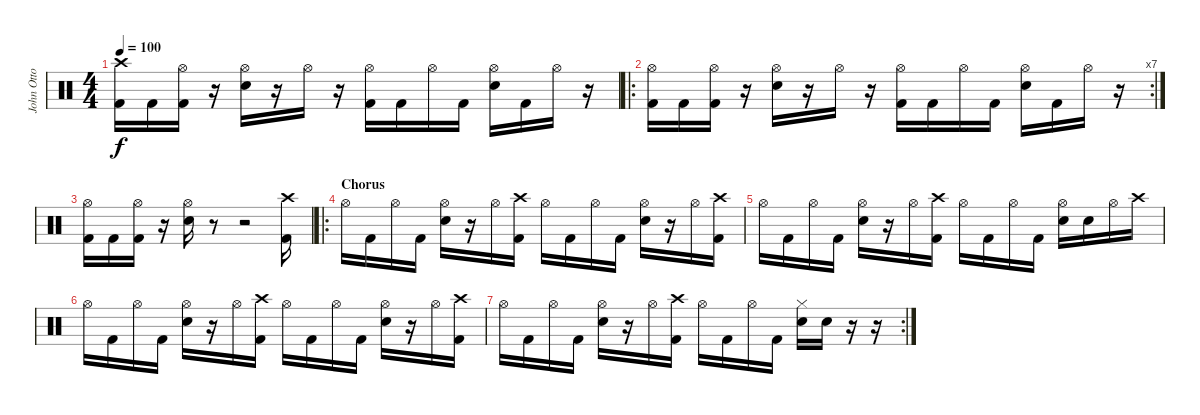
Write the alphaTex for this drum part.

\track ("John Otto" "John Otto") {instrument percussion}
\staff {score}
\articulation defaults
\ts (4 4)
\tempo 100
\clef neutral
\ks c
("Crash high (hit)" "Kick (hit) 2").16{dy f} "Kick (hit) 2".16 ("Hi-Hat (open)" "Kick (hit) 2").16 r.16 ("Hi-Hat (open)" "Snare (hit) 2").16 r.16 "Hi-Hat (open)".16 r.16 ("Hi-Hat (open)" "Kick (hit) 2").16 "Kick (hit) 2".16 "Hi-Hat (open)".16 "Kick (hit) 2".16 ("Hi-Hat (open)" "Snare (hit) 2").16 "Kick (hit) 2".16 "Hi-Hat (open)".16 r.16 |
\ro
\rc 7
("Hi-Hat (open)" "Kick (hit) 2").16 "Kick (hit) 2".16 ("Hi-Hat (open)" "Kick (hit) 2").16 r.16 ("Hi-Hat (open)" "Snare (hit) 2").16 r.16 "Hi-Hat (open)".16 r.16 ("Hi-Hat (open)" "Kick (hit) 2").16 "Kick (hit) 2".16 "Hi-Hat (open)".16 "Kick (hit) 2".16 ("Hi-Hat (open)" "Snare (hit) 2").16 "Kick (hit) 2".16 "Hi-Hat (open)".16 r.16 |
("Hi-Hat (open)" "Kick (hit) 2").16 "Kick (hit) 2".16 ("Hi-Hat (open)" "Kick (hit) 2").16 r.16 ("Hi-Hat (open)" "Snare (hit) 2").16 r.8 r.2 ("Crash high (hit)" "Kick (hit) 2").16 |
\ro
\section ("" "Chorus")
"Hi-Hat (open)".16 "Kick (hit) 2".16 "Hi-Hat (open)".16 "Kick (hit) 2".16 ("Hi-Hat (open)" "Snare (hit) 2").16 r.16 "Hi-Hat (open)".16 ("Crash high (hit)" "Kick (hit) 2").16 "Hi-Hat (open)".16 "Kick (hit) 2".16 "Hi-Hat (open)".16 "Kick (hit) 2".16 ("Hi-Hat (open)" "Snare (hit) 2").16 r.16 "Hi-Hat (open)".16 ("Crash high (hit)" "Kick (hit) 2").16 |
"Hi-Hat (open)".16 "Kick (hit) 2".16 "Hi-Hat (open)".16 "Kick (hit) 2".16 ("Hi-Hat (open)" "Snare (hit) 2").16 r.16 "Hi-Hat (open)".16 ("Crash high (hit)" "Kick (hit) 2").16 "Hi-Hat (open)".16 "Kick (hit) 2".16 "Hi-Hat (open)".16 "Kick (hit) 2".16 ("Hi-Hat (open)" "Snare (hit) 2").16 "Snare (hit) 2".16 "Hi-Hat (open)".16 "Crash high (hit)".16 |
"Hi-Hat (open)".16 "Kick (hit) 2".16 "Hi-Hat (open)".16 "Kick (hit) 2".16 ("Hi-Hat (open)" "Snare (hit) 2").16 r.16 "Hi-Hat (open)".16 ("Crash high (hit)" "Kick (hit) 2").16 "Hi-Hat (open)".16 "Kick (hit) 2".16 "Hi-Hat (open)".16 "Kick (hit) 2".16 ("Hi-Hat (open)" "Snare (hit) 2").16 r.16 "Hi-Hat (open)".16 ("Crash high (hit)" "Kick (hit) 2").16 |
\rc 2 "Hi-Hat (open)".16 "Kick (hit) 2".16 "Hi-Hat (open)".16 "Kick (hit) 2".16
("Hi-Hat (open)" "Snare (hit) 2").16 r.16 "Hi-Hat (open)".16 ("Crash high (hit)" "Kick (hit) 2").16 "Hi-Hat (open)".16 "Kick (hit) 2".16 "Hi-Hat (open)".16 "Kick (hit) 2".16 ("Hi-Hat (closed)" "Snare (hit) 2").16 "Snare (hit) 2".16 r.16 r.16
